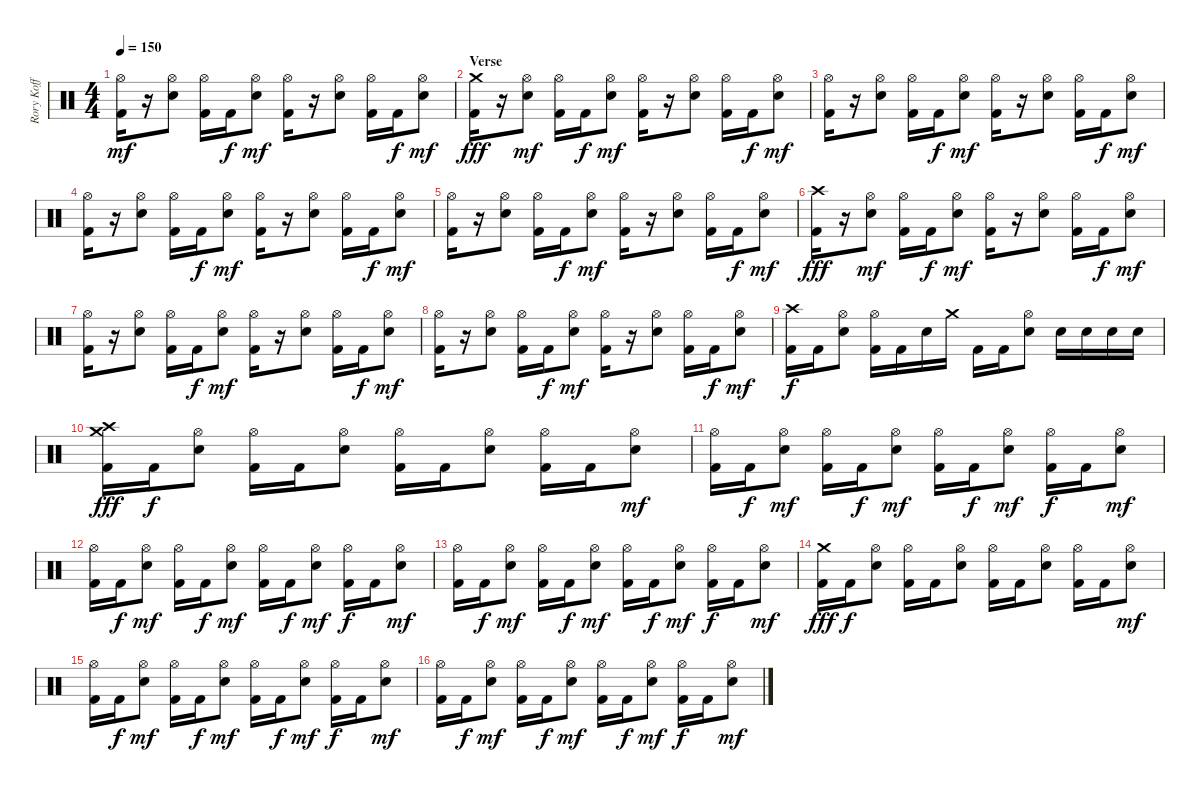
\track ("Rory Koff" "Rory Koff") {instrument percussion}
\staff {score}
\articulation defaults
\ts (4 4)
\tempo 150
\clef neutral
\ks c
("Hi-Hat (open)" "Kick (hit) 2").16{dy mf} r.16 ("Hi-Hat (open)" "Electric Snare (hit)").8 ("Hi-Hat (open)" "Kick (hit) 2").16 "Kick (hit) 2".16{dy f} ("Hi-Hat (open)" "Electric Snare (hit)").8{dy mf} ("Hi-Hat (open)" "Kick (hit) 2").16 r.16 ("Hi-Hat (open)" "Electric Snare (hit)").8 ("Hi-Hat (open)" "Kick (hit) 2").16 "Kick (hit) 2".16{dy f} ("Hi-Hat (open)" "Electric Snare (hit)").8{dy mf} |
\section ("" "Verse")
("Crash medium (hit)" "Kick (hit) 2").16{dy fff} r.16 ("Hi-Hat (open)" "Electric Snare (hit)").8{dy mf} ("Hi-Hat (open)" "Kick (hit) 2").16 "Kick (hit) 2".16{dy f} ("Hi-Hat (open)" "Electric Snare (hit)").8{dy mf} ("Hi-Hat (open)" "Kick (hit) 2").16 r.16 ("Hi-Hat (open)" "Electric Snare (hit)").8 ("Hi-Hat (open)" "Kick (hit) 2").16 "Kick (hit) 2".16{dy f} ("Hi-Hat (open)" "Electric Snare (hit)").8{dy mf} |
("Hi-Hat (open)" "Kick (hit) 2").16 r.16 ("Hi-Hat (open)" "Electric Snare (hit)").8 ("Hi-Hat (open)" "Kick (hit) 2").16 "Kick (hit) 2".16{dy f} ("Hi-Hat (open)" "Electric Snare (hit)").8{dy mf} ("Hi-Hat (open)" "Kick (hit) 2").16 r.16 ("Hi-Hat (open)" "Electric Snare (hit)").8 ("Hi-Hat (open)" "Kick (hit) 2").16 "Kick (hit) 2".16{dy f} ("Hi-Hat (open)" "Electric Snare (hit)").8{dy mf} |
("Hi-Hat (open)" "Kick (hit) 2").16 r.16 ("Hi-Hat (open)" "Electric Snare (hit)").8 ("Hi-Hat (open)" "Kick (hit) 2").16 "Kick (hit) 2".16{dy f} ("Hi-Hat (open)" "Electric Snare (hit)").8{dy mf} ("Hi-Hat (open)" "Kick (hit) 2").16 r.16 ("Hi-Hat (open)" "Electric Snare (hit)").8 ("Hi-Hat (open)" "Kick (hit) 2").16 "Kick (hit) 2".16{dy f} ("Hi-Hat (open)" "Electric Snare (hit)").8{dy mf} |
("Hi-Hat (open)" "Kick (hit) 2").16 r.16 ("Hi-Hat (open)" "Electric Snare (hit)").8 ("Hi-Hat (open)" "Kick (hit) 2").16 "Kick (hit) 2".16{dy f} ("Hi-Hat (open)" "Electric Snare (hit)").8{dy mf} ("Hi-Hat (open)" "Kick (hit) 2").16 r.16 ("Hi-Hat (open)" "Electric Snare (hit)").8 ("Hi-Hat (open)" "Kick (hit) 2").16 "Kick (hit) 2".16{dy f} ("Hi-Hat (open)" "Electric Snare (hit)").8{dy mf} |
("Crash high (hit)" "Kick (hit) 2").16{dy fff} r.16 ("Hi-Hat (open)" "Electric Snare (hit)").8{dy mf} ("Hi-Hat (open)" "Kick (hit) 2").16 "Kick (hit) 2".16{dy f} ("Hi-Hat (open)" "Electric Snare (hit)").8{dy mf} ("Hi-Hat (open)" "Kick (hit) 2").16 r.16 ("Hi-Hat (open)" "Electric Snare (hit)").8 ("Hi-Hat (open)" "Kick (hit) 2").16 "Kick (hit) 2".16{dy f} ("Hi-Hat (open)" "Electric Snare (hit)").8{dy mf} |
("Hi-Hat (open)" "Kick (hit) 2").16 r.16 ("Hi-Hat (open)" "Electric Snare (hit)").8 ("Hi-Hat (open)" "Kick (hit) 2").16 "Kick (hit) 2".16{dy f} ("Hi-Hat (open)" "Electric Snare (hit)").8{dy mf} ("Hi-Hat (open)" "Kick (hit) 2").16 r.16 ("Hi-Hat (open)" "Electric Snare (hit)").8 ("Hi-Hat (open)" "Kick (hit) 2").16 "Kick (hit) 2".16{dy f} ("Hi-Hat (open)" "Electric Snare (hit)").8{dy mf} |
("Hi-Hat (open)" "Kick (hit) 2").16 r.16 ("Hi-Hat (open)" "Electric Snare (hit)").8 ("Hi-Hat (open)" "Kick (hit) 2").16 "Kick (hit) 2".16{dy f} ("Hi-Hat (open)" "Electric Snare (hit)").8{dy mf} ("Hi-Hat (open)" "Kick (hit) 2").16 r.16 ("Hi-Hat (open)" "Electric Snare (hit)").8 ("Hi-Hat (open)" "Kick (hit) 2").16 "Kick (hit) 2".16{dy f} ("Hi-Hat (open)" "Electric Snare (hit)").8{dy mf} |
("Crash high (hit)" "Kick (hit) 2").16{dy f} "Kick (hit) 2".16 ("Hi-Hat (open)" "Electric Snare (hit)").8 ("Hi-Hat (open)" "Kick (hit) 2").16 "Kick (hit) 2".16 "Electric Snare (hit)".16 "Crash medium (hit)".16 "Kick (hit) 2".16 "Kick (hit) 2".16 ("Hi-Hat (open)" "Electric Snare (hit)").8 "Electric Snare (hit)".16 "Electric Snare (hit)".16 "Electric Snare (hit)".16 "Electric Snare (hit)".16 |
("Crash medium (hit)" "Kick (hit) 2" "Crash high (hit)").16{dy fff} "Kick (hit) 2".16{dy f} ("Hi-Hat (open)" "Electric Snare (hit)").8 ("Hi-Hat (open)" "Kick (hit) 2").16 "Kick (hit) 2".16 ("Hi-Hat (open)" "Electric Snare (hit)").8 ("Hi-Hat (open)" "Kick (hit) 2").16 "Kick (hit) 2".16 ("Hi-Hat (open)" "Electric Snare (hit)").8 ("Hi-Hat (open)" "Kick (hit) 2").16 "Kick (hit) 2".16 ("Hi-Hat (open)" "Electric Snare (hit)").8{dy mf} |
("Hi-Hat (open)" "Kick (hit) 2").16 "Kick (hit) 2".16{dy f} ("Hi-Hat (open)" "Electric Snare (hit)").8{dy mf} ("Hi-Hat (open)" "Kick (hit) 2").16 "Kick (hit) 2".16{dy f} ("Hi-Hat (open)" "Electric Snare (hit)").8{dy mf} ("Hi-Hat (open)" "Kick (hit) 2").16 "Kick (hit) 2".16{dy f} ("Hi-Hat (open)" "Electric Snare (hit)").8{dy mf} ("Hi-Hat (open)" "Kick (hit) 2").16{dy f} "Kick (hit) 2".16 ("Hi-Hat (open)" "Electric Snare (hit)").8{dy mf} |
("Hi-Hat (open)" "Kick (hit) 2").16 "Kick (hit) 2".16{dy f} ("Hi-Hat (open)" "Electric Snare (hit)").8{dy mf} ("Hi-Hat (open)" "Kick (hit) 2").16 "Kick (hit) 2".16{dy f} ("Hi-Hat (open)" "Electric Snare (hit)").8{dy mf} ("Hi-Hat (open)" "Kick (hit) 2").16 "Kick (hit) 2".16{dy f} ("Hi-Hat (open)" "Electric Snare (hit)").8{dy mf} ("Hi-Hat (open)" "Kick (hit) 2").16{dy f} "Kick (hit) 2".16 ("Hi-Hat (open)" "Electric Snare (hit)").8{dy mf} |
("Hi-Hat (open)" "Kick (hit) 2").16 "Kick (hit) 2".16{dy f} ("Hi-Hat (open)" "Electric Snare (hit)").8{dy mf} ("Hi-Hat (open)" "Kick (hit) 2").16 "Kick (hit) 2".16{dy f} ("Hi-Hat (open)" "Electric Snare (hit)").8{dy mf} ("Hi-Hat (open)" "Kick (hit) 2").16 "Kick (hit) 2".16{dy f} ("Hi-Hat (open)" "Electric Snare (hit)").8{dy mf} ("Hi-Hat (open)" "Kick (hit) 2").16{dy f} "Kick (hit) 2".16 ("Hi-Hat (open)" "Electric Snare (hit)").8{dy mf} |
("Crash medium (hit)" "Kick (hit) 2").16{dy fff} "Kick (hit) 2".16{dy f} ("Hi-Hat (open)" "Electric Snare (hit)").8 ("Hi-Hat (open)" "Kick (hit) 2").16 "Kick (hit) 2".16 ("Hi-Hat (open)" "Electric Snare (hit)").8 ("Hi-Hat (open)" "Kick (hit) 2").16 "Kick (hit) 2".16 ("Hi-Hat (open)" "Electric Snare (hit)").8 ("Hi-Hat (open)" "Kick (hit) 2").16 "Kick (hit) 2".16 ("Hi-Hat (open)" "Electric Snare (hit)").8{dy mf} |
("Hi-Hat (open)" "Kick (hit) 2").16 "Kick (hit) 2".16{dy f} ("Hi-Hat (open)" "Electric Snare (hit)").8{dy mf} ("Hi-Hat (open)" "Kick (hit) 2").16 "Kick (hit) 2".16{dy f} ("Hi-Hat (open)" "Electric Snare (hit)").8{dy mf} ("Hi-Hat (open)" "Kick (hit) 2").16 "Kick (hit) 2".16{dy f} ("Hi-Hat (open)" "Electric Snare (hit)").8{dy mf} ("Hi-Hat (open)" "Kick (hit) 2").16{dy f} "Kick (hit) 2".16 ("Hi-Hat (open)" "Electric Snare (hit)").8{dy mf} |
("Hi-Hat (open)" "Kick (hit) 2").16 "Kick (hit) 2".16{dy f} ("Hi-Hat (open)" "Electric Snare (hit)").8{dy mf} ("Hi-Hat (open)" "Kick (hit) 2").16 "Kick (hit) 2".16{dy f} ("Hi-Hat (open)" "Electric Snare (hit)").8{dy mf} ("Hi-Hat (open)" "Kick (hit) 2").16 "Kick (hit) 2".16{dy f} ("Hi-Hat (open)" "Electric Snare (hit)").8{dy mf} ("Hi-Hat (open)" "Kick (hit) 2").16{dy f} "Kick (hit) 2".16 ("Hi-Hat (open)" "Electric Snare (hit)").8{dy mf}
